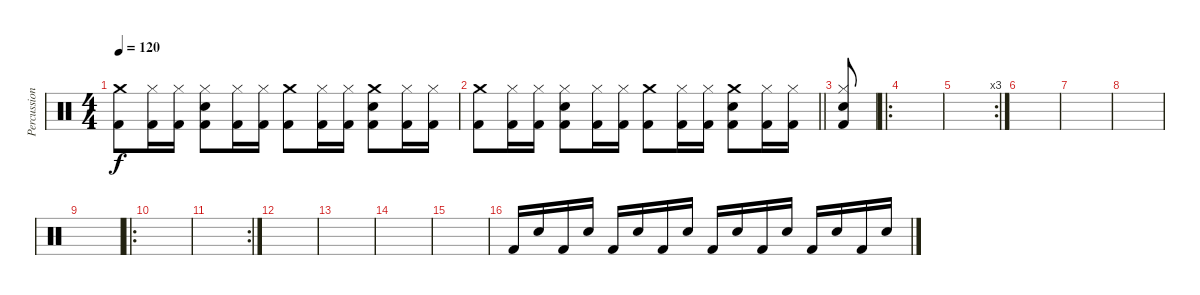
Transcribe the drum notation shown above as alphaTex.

\track ("Percussion" "Percussion") {instrument percussion}
\staff {score}
\articulation defaults
\ts (4 4)
\tempo 120
\clef neutral
\ks c
("Kick (hit) 2" "Crash medium (hit)").8{dy f} ("Kick (hit) 2" "Hi-Hat (closed)").16 ("Kick (hit) 2" "Hi-Hat (closed)").16 ("Kick (hit) 2" "Snare (hit) 2" "Hi-Hat (closed)").8 ("Kick (hit) 2" "Hi-Hat (closed)").16 ("Kick (hit) 2" "Hi-Hat (closed)").16 ("Kick (hit) 2" "Crash medium (hit)").8 ("Kick (hit) 2" "Hi-Hat (closed)").16 ("Kick (hit) 2" "Hi-Hat (closed)").16 ("Kick (hit) 2" "Snare (hit) 2" "Crash medium (hit)").8 ("Kick (hit) 2" "Hi-Hat (closed)").16 ("Kick (hit) 2" "Hi-Hat (closed)").16 |
\barLineRight lightlight
("Kick (hit) 2" "Crash medium (hit)").8 ("Kick (hit) 2" "Hi-Hat (closed)").16 ("Kick (hit) 2" "Hi-Hat (closed)").16 ("Kick (hit) 2" "Snare (hit) 2" "Hi-Hat (closed)").8 ("Kick (hit) 2" "Hi-Hat (closed)").16 ("Kick (hit) 2" "Hi-Hat (closed)").16 ("Kick (hit) 2" "Crash medium (hit)").8 ("Kick (hit) 2" "Hi-Hat (closed)").16 ("Kick (hit) 2" "Hi-Hat (closed)").16 ("Kick (hit) 2" "Snare (hit) 2" "Crash medium (hit)").8 ("Kick (hit) 2" "Hi-Hat (closed)").16 ("Kick (hit) 2" "Hi-Hat (closed)").16 |
("Kick (hit) 2" "Snare (hit) 2" "Hi-Hat (closed)").8 |
\ro
|
\rc 3
|
|
|
|
|
\ro
|
\rc 2
|
|
|
|
|
"Kick (hit) 2".16 "Snare (hit) 2".16 "Kick (hit) 2".16 "Snare (hit) 2".16 "Kick (hit) 2".16 "Snare (hit) 2".16 "Kick (hit) 2".16 "Snare (hit) 2".16 "Kick (hit) 2".16 "Snare (hit) 2".16 "Kick (hit) 2".16 "Snare (hit) 2".16 "Kick (hit) 2".16 "Snare (hit) 2".16 "Kick (hit) 2".16 "Snare (hit) 2".16
